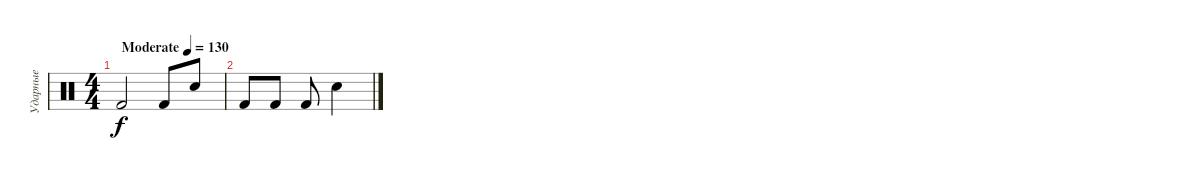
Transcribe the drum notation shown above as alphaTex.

\track ("Ударные" "Ударные") {instrument percussion}
\staff {score}
\articulation defaults
\ts (4 4)
\tempo (130 "Moderate")
\clef neutral
\ks c "Kick (hit) 2".2{dy f} "Kick (hit) 2".8 "Electric Snare (hit)".8
|
"Kick (hit) 2".8 "Kick (hit) 2".8 "Kick (hit) 2".8 "Electric Snare (hit)".4
